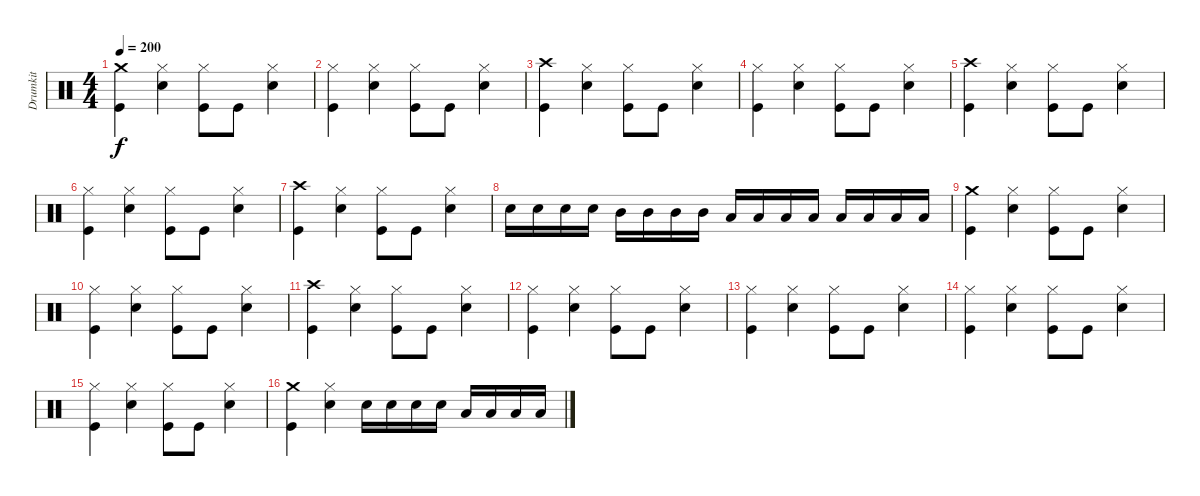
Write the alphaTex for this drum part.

\track ("Drumkit" "Drumkit") {instrument percussion}
\staff {score}
\articulation defaults
\ts (4 4)
\tempo 200
\clef neutral
\ks c
("Crash medium (hit)" "Kick (hit)").4{dy f} ("Hi-Hat (closed)" "Snare (hit) 2").4 ("Hi-Hat (closed)" "Kick (hit)").8 "Kick (hit)".8 ("Hi-Hat (closed)" "Snare (hit) 2").4 |
("Hi-Hat (closed)" "Kick (hit)").4 ("Hi-Hat (closed)" "Snare (hit) 2").4 ("Hi-Hat (closed)" "Kick (hit)").8 "Kick (hit)".8 ("Hi-Hat (closed)" "Snare (hit) 2").4 |
("Crash high (hit)" "Kick (hit)").4 ("Hi-Hat (closed)" "Snare (hit) 2").4 ("Hi-Hat (closed)" "Kick (hit)").8 "Kick (hit)".8 ("Hi-Hat (closed)" "Snare (hit) 2").4 |
("Hi-Hat (closed)" "Kick (hit)").4 ("Hi-Hat (closed)" "Snare (hit) 2").4 ("Hi-Hat (closed)" "Kick (hit)").8 "Kick (hit)".8 ("Hi-Hat (closed)" "Snare (hit) 2").4 |
("Crash high (hit)" "Kick (hit)").4 ("Hi-Hat (closed)" "Snare (hit) 2").4 ("Hi-Hat (closed)" "Kick (hit)").8 "Kick (hit)".8 ("Hi-Hat (closed)" "Snare (hit) 2").4 |
("Hi-Hat (closed)" "Kick (hit)").4 ("Hi-Hat (closed)" "Snare (hit) 2").4 ("Hi-Hat (closed)" "Kick (hit)").8 "Kick (hit)".8 ("Hi-Hat (closed)" "Snare (hit) 2").4 |
("Crash high (hit)" "Kick (hit)").4 ("Hi-Hat (closed)" "Snare (hit) 2").4 ("Hi-Hat (closed)" "Kick (hit)").8 "Kick (hit)".8 ("Hi-Hat (closed)" "Snare (hit) 2").4 |
"Snare (hit) 2".16 "Snare (hit) 2".16 "Snare (hit) 2".16 "Snare (hit) 2".16 "Mid Tom (hit)".16 "Mid Tom (hit)".16 "Mid Tom (hit)".16 "Mid Tom (hit)".16 "Low Tom (hit)".16 "Low Tom (hit)".16 "Low Tom (hit)".16 "Low Tom (hit)".16 "Low Floor Tom (hit)".16 "Low Floor Tom (hit)".16 "Low Floor Tom (hit)".16 "Low Floor Tom (hit)".16 |
("Crash medium (hit)" "Kick (hit)").4 ("Hi-Hat (closed)" "Snare (hit) 2").4 ("Hi-Hat (closed)" "Kick (hit)").8 "Kick (hit)".8 ("Hi-Hat (closed)" "Snare (hit) 2").4 |
("Hi-Hat (closed)" "Kick (hit)").4 ("Hi-Hat (closed)" "Snare (hit) 2").4 ("Hi-Hat (closed)" "Kick (hit)").8 "Kick (hit)".8 ("Hi-Hat (closed)" "Snare (hit) 2").4 |
("Crash high (hit)" "Kick (hit)").4 ("Hi-Hat (closed)" "Snare (hit) 2").4 ("Hi-Hat (closed)" "Kick (hit)").8 "Kick (hit)".8 ("Hi-Hat (closed)" "Snare (hit) 2").4 |
("Hi-Hat (closed)" "Kick (hit)").4 ("Hi-Hat (closed)" "Snare (hit) 2").4 ("Hi-Hat (closed)" "Kick (hit)").8 "Kick (hit)".8 ("Hi-Hat (closed)" "Snare (hit) 2").4 |
("Hi-Hat (closed)" "Kick (hit)").4 ("Hi-Hat (closed)" "Snare (hit) 2").4 ("Hi-Hat (closed)" "Kick (hit)").8 "Kick (hit)".8 ("Hi-Hat (closed)" "Snare (hit) 2").4 |
("Hi-Hat (closed)" "Kick (hit)").4 ("Hi-Hat (closed)" "Snare (hit) 2").4 ("Hi-Hat (closed)" "Kick (hit)").8 "Kick (hit)".8 ("Hi-Hat (closed)" "Snare (hit) 2").4 |
("Hi-Hat (closed)" "Kick (hit)").4 ("Hi-Hat (closed)" "Snare (hit) 2").4 ("Hi-Hat (closed)" "Kick (hit)").8 "Kick (hit)".8 ("Hi-Hat (closed)" "Snare (hit) 2").4 |
("Crash medium (hit)" "Kick (hit)").4 ("Hi-Hat (closed)" "Snare (hit) 2").4 "Snare (hit) 2".16 "Snare (hit) 2".16 "Snare (hit) 2".16 "Snare (hit) 2".16 "Low Floor Tom (hit)".16 "Low Floor Tom (hit)".16 "Low Tom (hit)".16 "Low Tom (hit)".16
